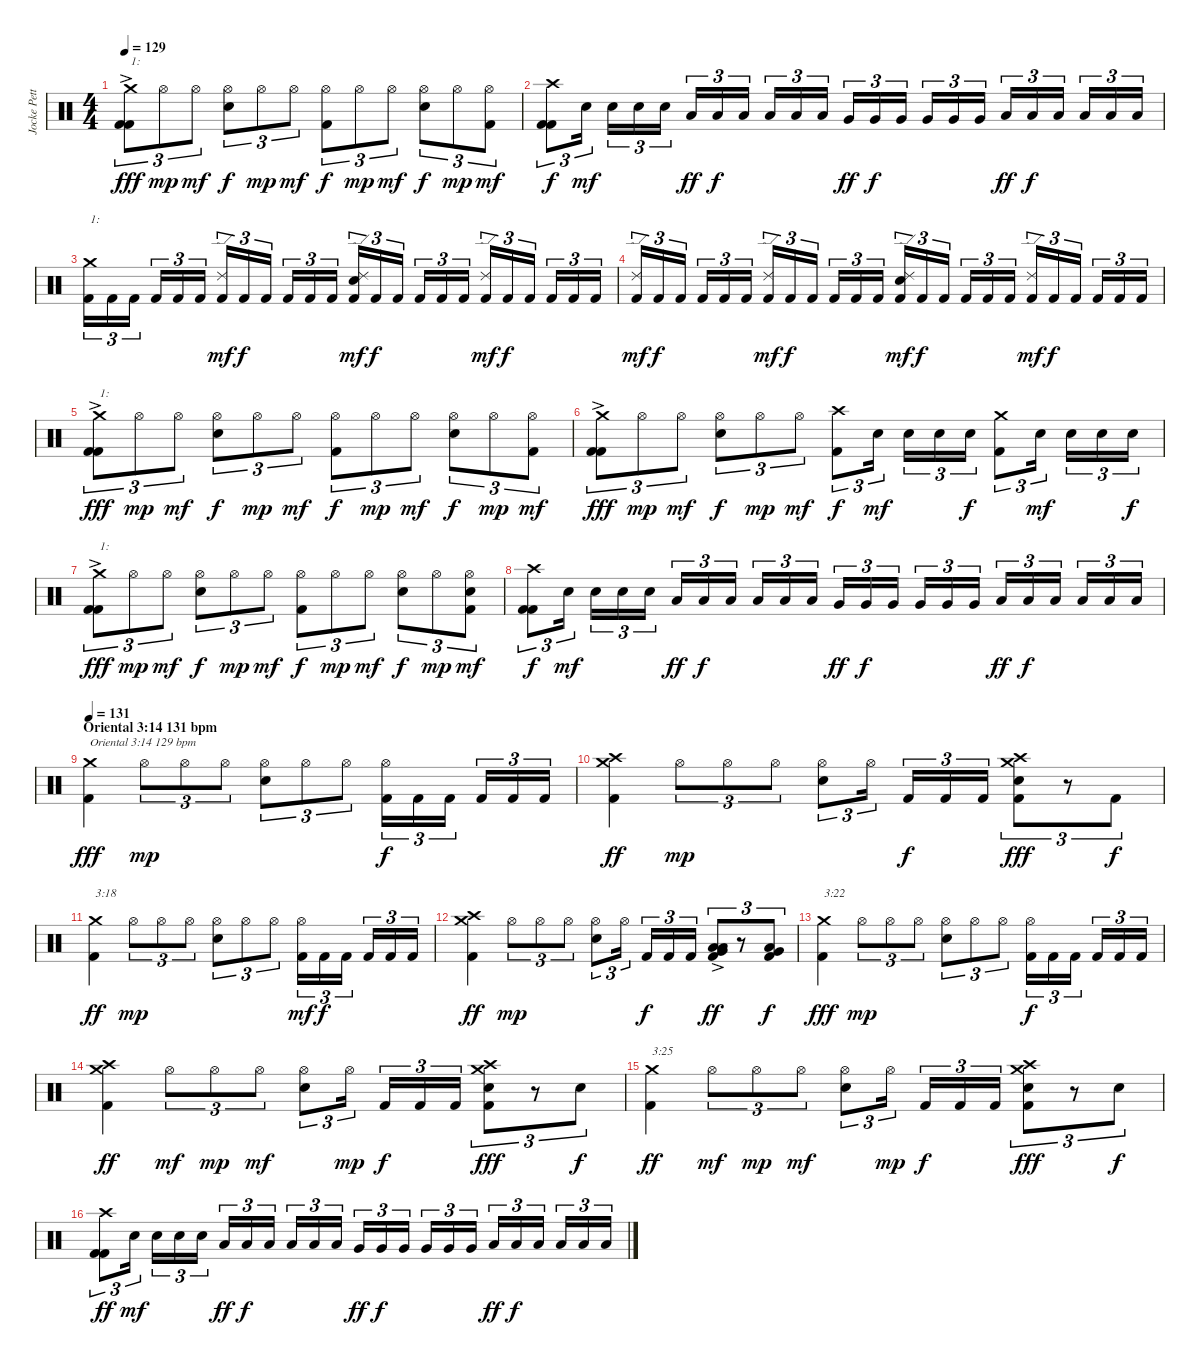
\track ("Jocke Pettersson" "Jocke Pett") {instrument percussion}
\staff {score}
\articulation defaults
\ts (4 4)
\tempo 129
\clef neutral
\ks c
("Kick (hit) 2" "Kick (hit) 2" "Crash medium (hit)"{ac}).8{tu (3 2) txt "1:" dy fff} "Hi-Hat (open)".8{tu (3 2) dy mp} "Hi-Hat (open)".8{tu (3 2) dy mf} ("Electric Snare (hit)" "Hi-Hat (open)").8{tu (3 2) dy f} "Hi-Hat (open)".8{tu (3 2) dy mp} "Hi-Hat (open)".8{tu (3 2) dy mf} ("Kick (hit) 2" "Hi-Hat (open)").8{tu (3 2) dy f} "Hi-Hat (open)".8{tu (3 2) dy mp} "Hi-Hat (open)".8{tu (3 2) dy mf} ("Electric Snare (hit)" "Hi-Hat (open)").8{tu (3 2) dy f} "Hi-Hat (open)".8{tu (3 2) dy mp} ("Kick (hit) 2" "Hi-Hat (open)").8{tu (3 2) dy mf} |
("Kick (hit) 2" "Kick (hit) 2" "Crash high (hit)").8{tu (3 2) dy f} "Electric Snare (hit)".16{tu (3 2) dy mf} "Electric Snare (hit)".16{tu (3 2)} "Electric Snare (hit)".16{tu (3 2)} "Electric Snare (hit)".16{tu (3 2)} "Low Tom (hit)".16{tu (3 2) dy ff} "Low Tom (hit)".16{tu (3 2) dy f} "Low Tom (hit)".16{tu (3 2)} "Low Tom (hit)".16{tu (3 2)} "Low Tom (hit)".16{tu (3 2)} "Low Tom (hit)".16{tu (3 2)} "Very Low Tom (hit)".16{tu (3 2) dy ff} "Very Low Tom (hit)".16{tu (3 2) dy f} "Very Low Tom (hit)".16{tu (3 2)} "Very Low Tom (hit)".16{tu (3 2)} "Very Low Tom (hit)".16{tu (3 2)} "Very Low Tom (hit)".16{tu (3 2)} "Low Floor Tom (hit)".16{tu (3 2) dy ff} "Low Floor Tom (hit)".16{tu (3 2) dy f} "Low Floor Tom (hit)".16{tu (3 2)} "Low Floor Tom (hit)".16{tu (3 2)} "Low Floor Tom (hit)".16{tu (3 2)} "Low Floor Tom (hit)".16{tu (3 2)} |
("Kick (hit) 2" "Crash medium (hit)").16{tu (3 2) txt "1:"} "Kick (hit) 2".16{tu (3 2)} "Kick (hit) 2".16{tu (3 2)} "Kick (hit) 2".16{tu (3 2)} "Kick (hit) 2".16{tu (3 2)} "Kick (hit) 2".16{tu (3 2)} ("Kick (hit) 2" "Ride (edge) 2").16{tu (3 2) dy mf} "Kick (hit) 2".16{tu (3 2) dy f} "Kick (hit) 2".16{tu (3 2)} "Kick (hit) 2".16{tu (3 2)} "Kick (hit) 2".16{tu (3 2)} "Kick (hit) 2".16{tu (3 2)} ("Kick (hit) 2" "Electric Snare (hit)" "Ride (edge) 2").16{tu (3 2) dy mf} "Kick (hit) 2".16{tu (3 2) dy f} "Kick (hit) 2".16{tu (3 2)} "Kick (hit) 2".16{tu (3 2)} "Kick (hit) 2".16{tu (3 2)} "Kick (hit) 2".16{tu (3 2)} ("Kick (hit) 2" "Ride (edge) 2").16{tu (3 2) dy mf} "Kick (hit) 2".16{tu (3 2) dy f} "Kick (hit) 2".16{tu (3 2)} "Kick (hit) 2".16{tu (3 2)} "Kick (hit) 2".16{tu (3 2)} "Kick (hit) 2".16{tu (3 2)} |
("Kick (hit) 2" "Ride (edge) 2").16{tu (3 2) dy mf} "Kick (hit) 2".16{tu (3 2) dy f} "Kick (hit) 2".16{tu (3 2)} "Kick (hit) 2".16{tu (3 2)} "Kick (hit) 2".16{tu (3 2)} "Kick (hit) 2".16{tu (3 2)} ("Kick (hit) 2" "Ride (edge) 2").16{tu (3 2) dy mf} "Kick (hit) 2".16{tu (3 2) dy f} "Kick (hit) 2".16{tu (3 2)} "Kick (hit) 2".16{tu (3 2)} "Kick (hit) 2".16{tu (3 2)} "Kick (hit) 2".16{tu (3 2)} ("Kick (hit) 2" "Electric Snare (hit)" "Ride (edge) 2").16{tu (3 2) dy mf} "Kick (hit) 2".16{tu (3 2) dy f} "Kick (hit) 2".16{tu (3 2)} "Kick (hit) 2".16{tu (3 2)} "Kick (hit) 2".16{tu (3 2)} "Kick (hit) 2".16{tu (3 2)} ("Kick (hit) 2" "Ride (edge) 2").16{tu (3 2) dy mf} "Kick (hit) 2".16{tu (3 2) dy f} "Kick (hit) 2".16{tu (3 2)} "Kick (hit) 2".16{tu (3 2)} "Kick (hit) 2".16{tu (3 2)} "Kick (hit) 2".16{tu (3 2)} |
("Kick (hit) 2" "Kick (hit) 2" "Crash medium (hit)"{ac}).8{tu (3 2) txt "1:" dy fff} "Hi-Hat (open)".8{tu (3 2) dy mp} "Hi-Hat (open)".8{tu (3 2) dy mf} ("Electric Snare (hit)" "Hi-Hat (open)").8{tu (3 2) dy f} "Hi-Hat (open)".8{tu (3 2) dy mp} "Hi-Hat (open)".8{tu (3 2) dy mf} ("Kick (hit) 2" "Hi-Hat (open)").8{tu (3 2) dy f} "Hi-Hat (open)".8{tu (3 2) dy mp} "Hi-Hat (open)".8{tu (3 2) dy mf} ("Electric Snare (hit)" "Hi-Hat (open)").8{tu (3 2) dy f} "Hi-Hat (open)".8{tu (3 2) dy mp} ("Kick (hit) 2" "Hi-Hat (open)").8{tu (3 2) dy mf} |
("Kick (hit) 2" "Kick (hit) 2" "Crash medium (hit)"{ac}).8{tu (3 2) dy fff} "Hi-Hat (open)".8{tu (3 2) dy mp} "Hi-Hat (open)".8{tu (3 2) dy mf} ("Electric Snare (hit)" "Hi-Hat (open)").8{tu (3 2) dy f} "Hi-Hat (open)".8{tu (3 2) dy mp} "Hi-Hat (open)".8{tu (3 2) dy mf} ("Kick (hit) 2" "Crash high (hit)").8{tu (3 2) dy f} "Electric Snare (hit)".16{tu (3 2) dy mf} "Electric Snare (hit)".16{tu (3 2)} "Electric Snare (hit)".16{tu (3 2)} "Electric Snare (hit)".16{tu (3 2) dy f} ("Kick (hit) 2" "Crash medium (hit)").8{tu (3 2)} "Electric Snare (hit)".16{tu (3 2) dy mf} "Electric Snare (hit)".16{tu (3 2)} "Electric Snare (hit)".16{tu (3 2)} "Electric Snare (hit)".16{tu (3 2) dy f} |
("Kick (hit) 2" "Kick (hit) 2" "Crash medium (hit)"{ac}).8{tu (3 2) txt "1:" dy fff} "Hi-Hat (open)".8{tu (3 2) dy mp} "Hi-Hat (open)".8{tu (3 2) dy mf} ("Electric Snare (hit)" "Hi-Hat (open)").8{tu (3 2) dy f} "Hi-Hat (open)".8{tu (3 2) dy mp} "Hi-Hat (open)".8{tu (3 2) dy mf} ("Kick (hit) 2" "Hi-Hat (open)").8{tu (3 2) dy f} "Hi-Hat (open)".8{tu (3 2) dy mp} "Hi-Hat (open)".8{tu (3 2) dy mf} ("Electric Snare (hit)" "Hi-Hat (open)").8{tu (3 2) dy f} "Hi-Hat (open)".8{tu (3 2) dy mp} ("Kick (hit) 2" "Electric Snare (hit)" "Hi-Hat (open)").8{tu (3 2) dy mf} |
("Kick (hit) 2" "Kick (hit) 2" "Crash high (hit)").8{tu (3 2) dy f} "Electric Snare (hit)".16{tu (3 2) dy mf} "Electric Snare (hit)".16{tu (3 2)} "Electric Snare (hit)".16{tu (3 2)} "Electric Snare (hit)".16{tu (3 2)} "Low Tom (hit)".16{tu (3 2) dy ff} "Low Tom (hit)".16{tu (3 2) dy f} "Low Tom (hit)".16{tu (3 2)} "Low Tom (hit)".16{tu (3 2)} "Low Tom (hit)".16{tu (3 2)} "Low Tom (hit)".16{tu (3 2)} "Very Low Tom (hit)".16{tu (3 2) dy ff} "Very Low Tom (hit)".16{tu (3 2) dy f} "Very Low Tom (hit)".16{tu (3 2)} "Very Low Tom (hit)".16{tu (3 2)} "Very Low Tom (hit)".16{tu (3 2)} "Very Low Tom (hit)".16{tu (3 2)} "Low Floor Tom (hit)".16{tu (3 2) dy ff} "Low Floor Tom (hit)".16{tu (3 2) dy f} "Low Floor Tom (hit)".16{tu (3 2)} "Low Floor Tom (hit)".16{tu (3 2)} "Low Floor Tom (hit)".16{tu (3 2)} "Low Floor Tom (hit)".16{tu (3 2)} |
\section ("" "Oriental 3:14 131 bpm")
\tempo 131
("Kick (hit) 2" "Crash medium (hit)").4{txt "Oriental 3:14 129 bpm" dy fff} "Hi-Hat (open)".8{tu (3 2) dy mp} "Hi-Hat (open)".8{tu (3 2)} "Hi-Hat (open)".8{tu (3 2)} ("Electric Snare (hit)" "Hi-Hat (open)").8{tu (3 2)} "Hi-Hat (open)".8{tu (3 2)} "Hi-Hat (open)".8{tu (3 2)} ("Kick (hit) 2" "Hi-Hat (open)").16{tu (3 2) dy f} "Kick (hit) 2".16{tu (3 2)} "Kick (hit) 2".16{tu (3 2)} "Kick (hit) 2".16{tu (3 2)} "Kick (hit) 2".16{tu (3 2)} "Kick (hit) 2".16{tu (3 2)} |
("Kick (hit) 2" "Crash medium (hit)" "Crash high (hit)").4{dy ff} "Hi-Hat (open)".8{tu (3 2) dy mp} "Hi-Hat (open)".8{tu (3 2)} "Hi-Hat (open)".8{tu (3 2)} ("Electric Snare (hit)" "Hi-Hat (open)").8{tu (3 2)} "Hi-Hat (open)".16{tu (3 2)} "Kick (hit) 2".16{tu (3 2) dy f} "Kick (hit) 2".16{tu (3 2)} "Kick (hit) 2".16{tu (3 2)} ("Kick (hit) 2" "Electric Snare (hit)" "Crash medium (hit)" "Crash high (hit)").8{tu (3 2) dy fff} r.8{tu (3 2)} "Kick (hit) 2".8{tu (3 2) dy f} |
("Kick (hit) 2" "Crash medium (hit)").4{txt "3:18" dy ff} "Hi-Hat (open)".8{tu (3 2) dy mp} "Hi-Hat (open)".8{tu (3 2)} "Hi-Hat (open)".8{tu (3 2)} ("Electric Snare (hit)" "Hi-Hat (open)").8{tu (3 2)} "Hi-Hat (open)".8{tu (3 2)} "Hi-Hat (open)".8{tu (3 2)} ("Kick (hit) 2" "Hi-Hat (open)").16{tu (3 2) dy mf} "Kick (hit) 2".16{tu (3 2) dy f} "Kick (hit) 2".16{tu (3 2)} "Kick (hit) 2".16{tu (3 2)} "Kick (hit) 2".16{tu (3 2)} "Kick (hit) 2".16{tu (3 2)} |
("Kick (hit) 2" "Crash medium (hit)" "Crash high (hit)").4{dy ff} "Hi-Hat (open)".8{tu (3 2) dy mp} "Hi-Hat (open)".8{tu (3 2)} "Hi-Hat (open)".8{tu (3 2)} ("Electric Snare (hit)" "Hi-Hat (open)").8{tu (3 2)} "Hi-Hat (open)".16{tu (3 2)} "Kick (hit) 2".16{tu (3 2) dy f} "Kick (hit) 2".16{tu (3 2)} "Kick (hit) 2".16{tu (3 2)} ("Kick (hit) 2" "Very Low Tom (hit)"{ac} "Low Floor Tom (hit)"{ac} "Low Tom (hit)").8{tu (3 2) dy ff} r.8{tu (3 2)} ("Kick (hit) 2" "Very Low Tom (hit)" "Low Floor Tom (hit)").8{tu (3 2) dy f} |
("Kick (hit) 2" "Crash medium (hit)").4{txt "3:22" dy fff} "Hi-Hat (open)".8{tu (3 2) dy mp} "Hi-Hat (open)".8{tu (3 2)} "Hi-Hat (open)".8{tu (3 2)} ("Electric Snare (hit)" "Hi-Hat (open)").8{tu (3 2)} "Hi-Hat (open)".8{tu (3 2)} "Hi-Hat (open)".8{tu (3 2)} ("Kick (hit) 2" "Hi-Hat (open)").16{tu (3 2) dy f} "Kick (hit) 2".16{tu (3 2)} "Kick (hit) 2".16{tu (3 2)} "Kick (hit) 2".16{tu (3 2)} "Kick (hit) 2".16{tu (3 2)} "Kick (hit) 2".16{tu (3 2)} |
("Kick (hit) 2" "Crash medium (hit)" "Crash high (hit)").4{dy ff} "Hi-Hat (open)".8{tu (3 2) dy mf} "Hi-Hat (open)".8{tu (3 2) dy mp} "Hi-Hat (open)".8{tu (3 2) dy mf} ("Electric Snare (hit)" "Hi-Hat (open)").8{tu (3 2)} "Hi-Hat (open)".16{tu (3 2) dy mp} "Kick (hit) 2".16{tu (3 2) dy f} "Kick (hit) 2".16{tu (3 2)} "Kick (hit) 2".16{tu (3 2)} ("Kick (hit) 2" "Electric Snare (hit)" "Crash medium (hit)" "Crash high (hit)").8{tu (3 2) dy fff} r.8{tu (3 2)} "Electric Snare (hit)".8{tu (3 2) dy f} |
("Kick (hit) 2" "Crash medium (hit)").4{txt "3:25" dy ff} "Hi-Hat (open)".8{tu (3 2) dy mf} "Hi-Hat (open)".8{tu (3 2) dy mp} "Hi-Hat (open)".8{tu (3 2) dy mf} ("Electric Snare (hit)" "Hi-Hat (open)").8{tu (3 2)} "Hi-Hat (open)".16{tu (3 2) dy mp} "Kick (hit) 2".16{tu (3 2) dy f} "Kick (hit) 2".16{tu (3 2)} "Kick (hit) 2".16{tu (3 2)} ("Kick (hit) 2" "Electric Snare (hit)" "Crash medium (hit)" "Crash high (hit)").8{tu (3 2) dy fff} r.8{tu (3 2)} "Electric Snare (hit)".8{tu (3 2) dy f} |
("Kick (hit) 2" "Kick (hit) 2" "Crash high (hit)").8{tu (3 2) dy ff} "Electric Snare (hit)".16{tu (3 2) dy mf} "Electric Snare (hit)".16{tu (3 2)} "Electric Snare (hit)".16{tu (3 2)} "Electric Snare (hit)".16{tu (3 2)} "Low Tom (hit)".16{tu (3 2) dy ff} "Low Tom (hit)".16{tu (3 2) dy f} "Low Tom (hit)".16{tu (3 2)} "Low Tom (hit)".16{tu (3 2)} "Low Tom (hit)".16{tu (3 2)} "Low Tom (hit)".16{tu (3 2)} "Very Low Tom (hit)".16{tu (3 2) dy ff} "Very Low Tom (hit)".16{tu (3 2) dy f} "Very Low Tom (hit)".16{tu (3 2)} "Very Low Tom (hit)".16{tu (3 2)} "Very Low Tom (hit)".16{tu (3 2)} "Very Low Tom (hit)".16{tu (3 2)} "Low Floor Tom (hit)".16{tu (3 2) dy ff} "Low Floor Tom (hit)".16{tu (3 2) dy f} "Low Floor Tom (hit)".16{tu (3 2)} "Low Floor Tom (hit)".16{tu (3 2)} "Low Floor Tom (hit)".16{tu (3 2)} "Low Floor Tom (hit)".16{tu (3 2)}
